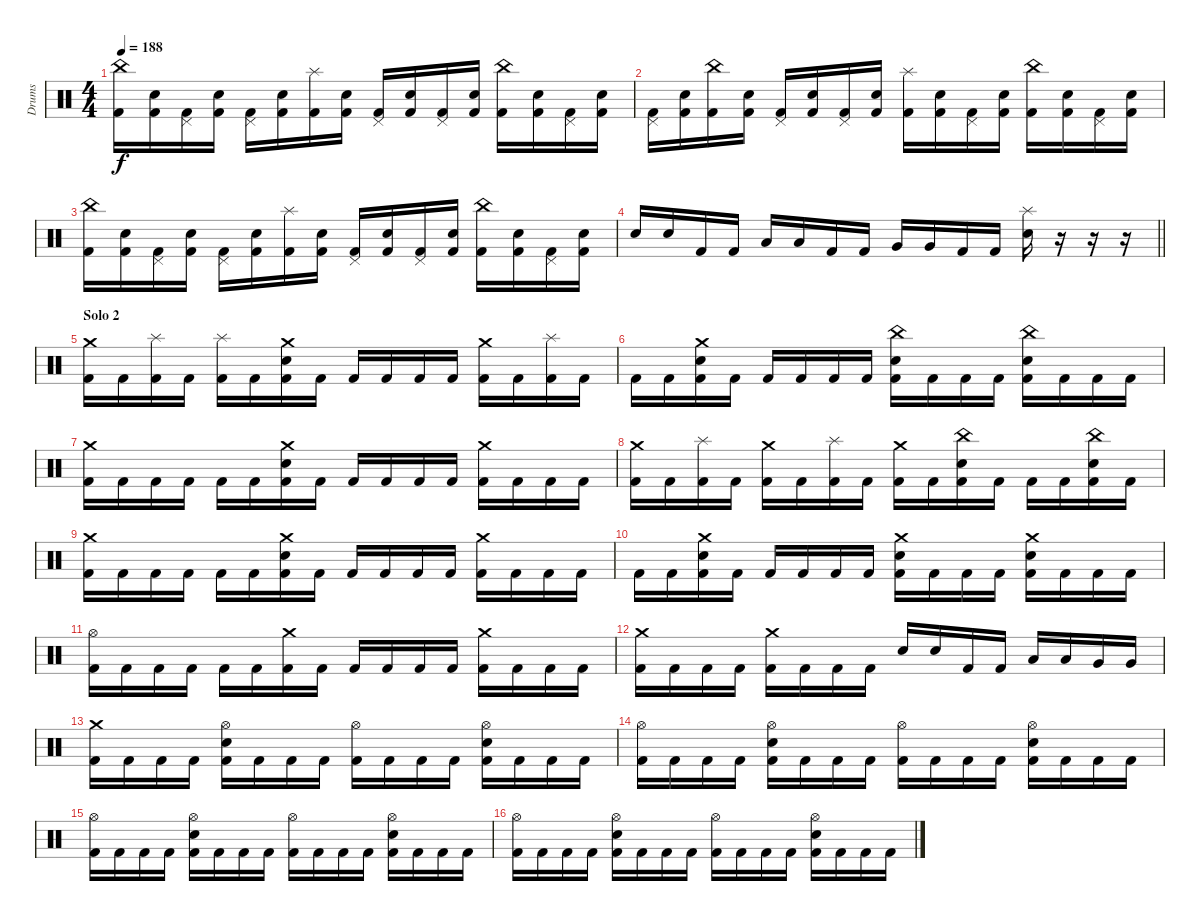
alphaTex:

\track ("Drums" "Drums") {instrument percussion}
\staff {score}
\articulation defaults
\ts (4 4)
\tempo 188
\clef neutral
\ks c
("China (hit)" "Kick (hit) 2").16{dy f} ("Snare (hit) 2" "Kick (hit) 2").16 ("Pedal Hi-Hat (hit)" "Kick (hit) 2").16 ("Snare (hit) 2" "Kick (hit) 2").16 ("Pedal Hi-Hat (hit)" "Kick (hit) 2").16 ("Snare (hit) 2" "Kick (hit) 2").16 ("Splash (hit)" "Kick (hit) 2").16 ("Snare (hit) 2" "Kick (hit) 2").16 ("Pedal Hi-Hat (hit)" "Kick (hit) 2").16 ("Snare (hit) 2" "Kick (hit) 2").16 ("Pedal Hi-Hat (hit)" "Kick (hit) 2").16 ("Snare (hit) 2" "Kick (hit) 2").16 ("China (hit)" "Kick (hit) 2").16 ("Snare (hit) 2" "Kick (hit) 2").16 ("Pedal Hi-Hat (hit)" "Kick (hit) 2").16 ("Snare (hit) 2" "Kick (hit) 2").16 |
("Pedal Hi-Hat (hit)" "Kick (hit) 2").16 ("Snare (hit) 2" "Kick (hit) 2").16 ("China (hit)" "Kick (hit) 2").16 ("Snare (hit) 2" "Kick (hit) 2").16 ("Pedal Hi-Hat (hit)" "Kick (hit) 2").16 ("Snare (hit) 2" "Kick (hit) 2").16 ("Pedal Hi-Hat (hit)" "Kick (hit) 2").16 ("Snare (hit) 2" "Kick (hit) 2").16 ("Splash (hit)" "Kick (hit) 2").16 ("Snare (hit) 2" "Kick (hit) 2").16 ("Pedal Hi-Hat (hit)" "Kick (hit) 2").16 ("Snare (hit) 2" "Kick (hit) 2").16 ("China (hit)" "Kick (hit) 2").16 ("Snare (hit) 2" "Kick (hit) 2").16 ("Pedal Hi-Hat (hit)" "Kick (hit) 2").16 ("Snare (hit) 2" "Kick (hit) 2").16 |
("China (hit)" "Kick (hit) 2").16 ("Snare (hit) 2" "Kick (hit) 2").16 ("Pedal Hi-Hat (hit)" "Kick (hit) 2").16 ("Snare (hit) 2" "Kick (hit) 2").16 ("Pedal Hi-Hat (hit)" "Kick (hit) 2").16 ("Snare (hit) 2" "Kick (hit) 2").16 ("Splash (hit)" "Kick (hit) 2").16 ("Snare (hit) 2" "Kick (hit) 2").16 ("Pedal Hi-Hat (hit)" "Kick (hit) 2").16 ("Snare (hit) 2" "Kick (hit) 2").16 ("Pedal Hi-Hat (hit)" "Kick (hit) 2").16 ("Snare (hit) 2" "Kick (hit) 2").16 ("China (hit)" "Kick (hit) 2").16 ("Snare (hit) 2" "Kick (hit) 2").16 ("Pedal Hi-Hat (hit)" "Kick (hit) 2").16 ("Snare (hit) 2" "Kick (hit) 2").16 |
\barLineRight lightlight "Snare (hit) 2".16 "Snare (hit) 2".16 "Kick (hit) 2".16 "Kick (hit) 2".16 "Low Tom (hit)".16 "Low Tom (hit)".16 "Kick (hit) 2".16 "Kick (hit) 2".16 "Very Low Tom (hit)".16 "Very Low Tom (hit)".16 "Kick (hit) 2".16 "Kick (hit) 2".16
("Splash (hit)" "Snare (hit) 2").16 r.16 r.16 r.16 |
\section ("" "Solo 2")
("Crash medium (hit)" "Kick (hit) 2").16 "Kick (hit) 2".16 ("Splash (hit)" "Kick (hit) 2").16 "Kick (hit) 2".16 ("Splash (hit)" "Kick (hit) 2").16 "Kick (hit) 2".16 ("Crash medium (hit)" "Snare (hit) 2" "Kick (hit) 2").16 "Kick (hit) 2".16 "Kick (hit) 2".16 "Kick (hit) 2".16 "Kick (hit) 2".16 "Kick (hit) 2".16 ("Crash medium (hit)" "Kick (hit) 2").16 "Kick (hit) 2".16 ("Splash (hit)" "Kick (hit) 2").16 "Kick (hit) 2".16 |
"Kick (hit) 2".16 "Kick (hit) 2".16 ("Crash medium (hit)" "Snare (hit) 2" "Kick (hit) 2").16 "Kick (hit) 2".16 "Kick (hit) 2".16 "Kick (hit) 2".16 "Kick (hit) 2".16 "Kick (hit) 2".16 ("China (hit)" "Snare (hit) 2" "Kick (hit) 2").16 "Kick (hit) 2".16 "Kick (hit) 2".16 "Kick (hit) 2".16 ("China (hit)" "Snare (hit) 2" "Kick (hit) 2").16 "Kick (hit) 2".16 "Kick (hit) 2".16 "Kick (hit) 2".16 |
("Crash medium (hit)" "Kick (hit) 2").16 "Kick (hit) 2".16 "Kick (hit) 2".16 "Kick (hit) 2".16 "Kick (hit) 2".16 "Kick (hit) 2".16 ("Crash medium (hit)" "Snare (hit) 2" "Kick (hit) 2").16 "Kick (hit) 2".16 "Kick (hit) 2".16 "Kick (hit) 2".16 "Kick (hit) 2".16 "Kick (hit) 2".16 ("Crash medium (hit)" "Kick (hit) 2").16 "Kick (hit) 2".16 "Kick (hit) 2".16 "Kick (hit) 2".16 |
("Crash medium (hit)" "Kick (hit) 2").16 "Kick (hit) 2".16 ("Splash (hit)" "Kick (hit) 2").16 "Kick (hit) 2".16 ("Crash medium (hit)" "Kick (hit) 2").16 "Kick (hit) 2".16 ("Splash (hit)" "Kick (hit) 2").16 "Kick (hit) 2".16 ("Crash medium (hit)" "Kick (hit) 2").16 "Kick (hit) 2".16 ("China (hit)" "Snare (hit) 2" "Kick (hit) 2").16 "Kick (hit) 2".16 "Kick (hit) 2".16 "Kick (hit) 2".16 ("China (hit)" "Snare (hit) 2" "Kick (hit) 2").16 "Kick (hit) 2".16 |
("Crash medium (hit)" "Kick (hit) 2").16 "Kick (hit) 2".16 "Kick (hit) 2".16 "Kick (hit) 2".16 "Kick (hit) 2".16 "Kick (hit) 2".16 ("Crash medium (hit)" "Snare (hit) 2" "Kick (hit) 2").16 "Kick (hit) 2".16 "Kick (hit) 2".16 "Kick (hit) 2".16 "Kick (hit) 2".16 "Kick (hit) 2".16 ("Crash medium (hit)" "Kick (hit) 2").16 "Kick (hit) 2".16 "Kick (hit) 2".16 "Kick (hit) 2".16 |
"Kick (hit) 2".16 "Kick (hit) 2".16 ("Crash medium (hit)" "Snare (hit) 2" "Kick (hit) 2").16 "Kick (hit) 2".16 "Kick (hit) 2".16 "Kick (hit) 2".16 "Kick (hit) 2".16 "Kick (hit) 2".16 ("Crash medium (hit)" "Snare (hit) 2" "Kick (hit) 2").16 "Kick (hit) 2".16 "Kick (hit) 2".16 "Kick (hit) 2".16 ("Crash medium (hit)" "Snare (hit) 2" "Kick (hit) 2").16 "Kick (hit) 2".16 "Kick (hit) 2".16 "Kick (hit) 2".16 |
("Hi-Hat (open)" "Kick (hit) 2").16 "Kick (hit) 2".16 "Kick (hit) 2".16 "Kick (hit) 2".16 "Kick (hit) 2".16 "Kick (hit) 2".16 ("Crash medium (hit)" "Kick (hit) 2").16 "Kick (hit) 2".16 "Kick (hit) 2".16 "Kick (hit) 2".16 "Kick (hit) 2".16 "Kick (hit) 2".16 ("Crash medium (hit)" "Kick (hit) 2").16 "Kick (hit) 2".16 "Kick (hit) 2".16 "Kick (hit) 2".16 |
("Crash medium (hit)" "Kick (hit) 2").16 "Kick (hit) 2".16 "Kick (hit) 2".16 "Kick (hit) 2".16 ("Crash medium (hit)" "Kick (hit) 2").16 "Kick (hit) 2".16 "Kick (hit) 2".16 "Kick (hit) 2".16 "Snare (hit) 2".16 "Snare (hit) 2".16 "Kick (hit) 2".16 "Kick (hit) 2".16 "Low Tom (hit)".16 "Low Tom (hit)".16 "Very Low Tom (hit)".16 "Very Low Tom (hit)".16 |
("Crash medium (hit)" "Kick (hit) 2").16 "Kick (hit) 2".16 "Kick (hit) 2".16 "Kick (hit) 2".16 ("Hi-Hat (open)" "Snare (hit) 2" "Kick (hit) 2").16 "Kick (hit) 2".16 "Kick (hit) 2".16 "Kick (hit) 2".16 ("Hi-Hat (open)" "Kick (hit) 2").16 "Kick (hit) 2".16 "Kick (hit) 2".16 "Kick (hit) 2".16 ("Hi-Hat (open)" "Snare (hit) 2" "Kick (hit) 2").16 "Kick (hit) 2".16 "Kick (hit) 2".16 "Kick (hit) 2".16 |
("Hi-Hat (open)" "Kick (hit) 2").16 "Kick (hit) 2".16 "Kick (hit) 2".16 "Kick (hit) 2".16 ("Hi-Hat (open)" "Snare (hit) 2" "Kick (hit) 2").16 "Kick (hit) 2".16 "Kick (hit) 2".16 "Kick (hit) 2".16 ("Hi-Hat (open)" "Kick (hit) 2").16 "Kick (hit) 2".16 "Kick (hit) 2".16 "Kick (hit) 2".16 ("Hi-Hat (open)" "Snare (hit) 2" "Kick (hit) 2").16 "Kick (hit) 2".16 "Kick (hit) 2".16 "Kick (hit) 2".16 |
("Hi-Hat (open)" "Kick (hit) 2").16 "Kick (hit) 2".16 "Kick (hit) 2".16 "Kick (hit) 2".16 ("Hi-Hat (open)" "Snare (hit) 2" "Kick (hit) 2").16 "Kick (hit) 2".16 "Kick (hit) 2".16 "Kick (hit) 2".16 ("Hi-Hat (open)" "Kick (hit) 2").16 "Kick (hit) 2".16 "Kick (hit) 2".16 "Kick (hit) 2".16 ("Hi-Hat (open)" "Snare (hit) 2" "Kick (hit) 2").16 "Kick (hit) 2".16 "Kick (hit) 2".16 "Kick (hit) 2".16 |
("Hi-Hat (open)" "Kick (hit) 2").16 "Kick (hit) 2".16 "Kick (hit) 2".16 "Kick (hit) 2".16 ("Hi-Hat (open)" "Snare (hit) 2" "Kick (hit) 2").16 "Kick (hit) 2".16 "Kick (hit) 2".16 "Kick (hit) 2".16 ("Hi-Hat (open)" "Kick (hit) 2").16 "Kick (hit) 2".16 "Kick (hit) 2".16 "Kick (hit) 2".16 ("Hi-Hat (open)" "Snare (hit) 2" "Kick (hit) 2").16 "Kick (hit) 2".16 "Kick (hit) 2".16 "Kick (hit) 2".16
